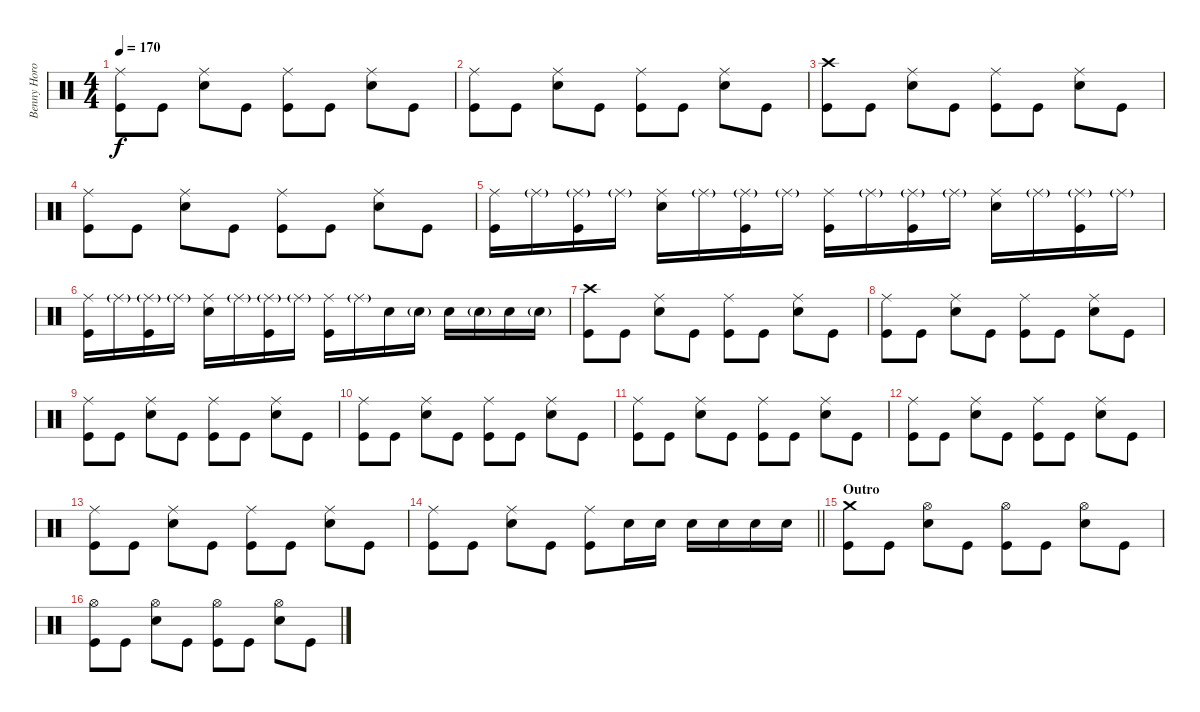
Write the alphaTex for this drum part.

\track ("Benny Horowitz" "Benny Horo") {instrument percussion}
\staff {score}
\articulation defaults
\ts (4 4)
\tempo 170
\clef neutral
\ks c
("Kick (hit)" "Ride (middle)").8{dy f} "Kick (hit)".8 ("Snare (hit) 2" "Ride (middle)").8 "Kick (hit)".8 ("Kick (hit)" "Ride (middle)").8 "Kick (hit)".8 ("Snare (hit) 2" "Ride (middle)").8 "Kick (hit)".8 |
("Kick (hit)" "Ride (middle)").8 "Kick (hit)".8 ("Snare (hit) 2" "Ride (middle)").8 "Kick (hit)".8 ("Kick (hit)" "Ride (middle)").8 "Kick (hit)".8 ("Snare (hit) 2" "Ride (middle)").8 "Kick (hit)".8 |
("Crash high (hit)" "Kick (hit)").8 "Kick (hit)".8 ("Snare (hit) 2" "Ride (middle)").8 "Kick (hit)".8 ("Kick (hit)" "Ride (middle)").8 "Kick (hit)".8 ("Snare (hit) 2" "Ride (middle)").8 "Kick (hit)".8 |
("Kick (hit)" "Ride (middle)").8 "Kick (hit)".8 ("Snare (hit) 2" "Ride (middle)").8 "Kick (hit)".8 ("Kick (hit)" "Ride (middle)").8 "Kick (hit)".8 ("Snare (hit) 2" "Ride (middle)").8 "Kick (hit)".8 |
("Kick (hit)" "Ride (middle)").16 "Ride (middle)"{g}.16 ("Kick (hit)" "Ride (middle)"{g}).16 "Ride (middle)"{g}.16 ("Snare (hit) 2" "Ride (middle)").16 "Ride (middle)"{g}.16 ("Kick (hit)" "Ride (middle)"{g}).16 "Ride (middle)"{g}.16 ("Kick (hit)" "Ride (middle)").16 "Ride (middle)"{g}.16 ("Kick (hit)" "Ride (middle)"{g}).16 "Ride (middle)"{g}.16 ("Snare (hit) 2" "Ride (middle)").16 "Ride (middle)"{g}.16 ("Kick (hit)" "Ride (middle)"{g}).16 "Ride (middle)"{g}.16 |
("Kick (hit)" "Ride (middle)").16 "Ride (middle)"{g}.16 ("Kick (hit)" "Ride (middle)"{g}).16 "Ride (middle)"{g}.16 ("Snare (hit) 2" "Ride (middle)").16 "Ride (middle)"{g}.16 ("Kick (hit)" "Ride (middle)"{g}).16 "Ride (middle)"{g}.16 ("Kick (hit)" "Ride (middle)").16 "Ride (middle)"{g}.16 "Snare (hit) 2".16 "Snare (hit) 2"{g}.16 "Snare (hit) 2".16 "Snare (hit) 2"{g}.16 "Snare (hit) 2".16 "Snare (hit) 2"{g}.16 |
("Crash high (hit)" "Kick (hit)").8 "Kick (hit)".8 ("Snare (hit) 2" "Ride (middle)").8 "Kick (hit)".8 ("Kick (hit)" "Ride (middle)").8 "Kick (hit)".8 ("Snare (hit) 2" "Ride (middle)").8 "Kick (hit)".8 |
("Kick (hit)" "Ride (middle)").8 "Kick (hit)".8 ("Snare (hit) 2" "Ride (middle)").8 "Kick (hit)".8 ("Kick (hit)" "Ride (middle)").8 "Kick (hit)".8 ("Snare (hit) 2" "Ride (middle)").8 "Kick (hit)".8 |
("Kick (hit)" "Ride (middle)").8 "Kick (hit)".8 ("Snare (hit) 2" "Ride (middle)").8 "Kick (hit)".8 ("Kick (hit)" "Ride (middle)").8 "Kick (hit)".8 ("Snare (hit) 2" "Ride (middle)").8 "Kick (hit)".8 |
("Kick (hit)" "Ride (middle)").8 "Kick (hit)".8 ("Snare (hit) 2" "Ride (middle)").8 "Kick (hit)".8 ("Kick (hit)" "Ride (middle)").8 "Kick (hit)".8 ("Snare (hit) 2" "Ride (middle)").8 "Kick (hit)".8 |
("Kick (hit)" "Ride (middle)").8 "Kick (hit)".8 ("Snare (hit) 2" "Ride (middle)").8 "Kick (hit)".8 ("Kick (hit)" "Ride (middle)").8 "Kick (hit)".8 ("Snare (hit) 2" "Ride (middle)").8 "Kick (hit)".8 |
("Kick (hit)" "Ride (middle)").8 "Kick (hit)".8 ("Snare (hit) 2" "Ride (middle)").8 "Kick (hit)".8 ("Kick (hit)" "Ride (middle)").8 "Kick (hit)".8 ("Snare (hit) 2" "Ride (middle)").8 "Kick (hit)".8 |
("Kick (hit)" "Ride (middle)").8 "Kick (hit)".8 ("Snare (hit) 2" "Ride (middle)").8 "Kick (hit)".8 ("Kick (hit)" "Ride (middle)").8 "Kick (hit)".8 ("Snare (hit) 2" "Ride (middle)").8 "Kick (hit)".8 |
\barLineRight lightlight
("Kick (hit)" "Ride (middle)").8 "Kick (hit)".8 ("Snare (hit) 2" "Ride (middle)").8 "Kick (hit)".8 ("Kick (hit)" "Ride (middle)").8 "Snare (hit) 2".16 "Snare (hit) 2".16 "Snare (hit) 2".16 "Snare (hit) 2".16 "Snare (hit) 2".16 "Snare (hit) 2".16 |
\section ("" "Outro")
("Kick (hit)" "Crash medium (hit)").8 "Kick (hit)".8 ("Snare (hit) 2" "Hi-Hat (open)").8 "Kick (hit)".8 ("Kick (hit)" "Hi-Hat (open)").8 "Kick (hit)".8 ("Snare (hit) 2" "Hi-Hat (open)").8 "Kick (hit)".8 |
("Kick (hit)" "Hi-Hat (open)").8 "Kick (hit)".8 ("Snare (hit) 2" "Hi-Hat (open)").8 "Kick (hit)".8 ("Kick (hit)" "Hi-Hat (open)").8 "Kick (hit)".8 ("Snare (hit) 2" "Hi-Hat (open)").8 "Kick (hit)".8
